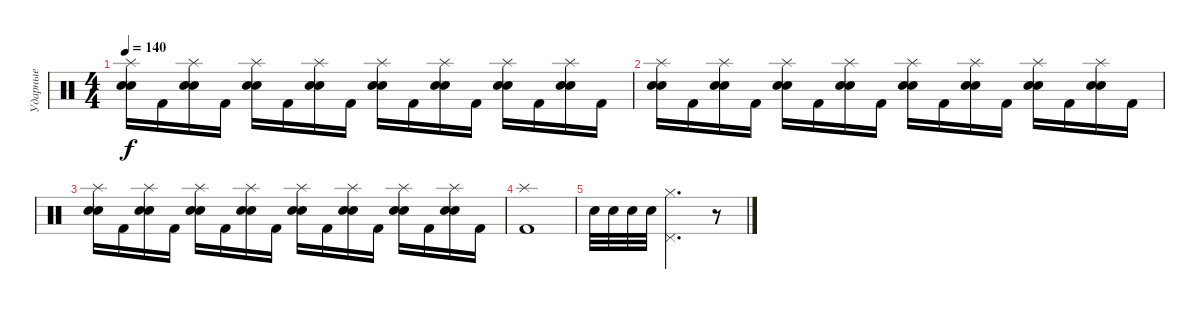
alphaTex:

\track ("Ударные" "Ударные") {instrument percussion}
\staff {score}
\articulation defaults
\ts (4 4)
\tempo 140
\clef neutral
\ks c
("Splash (hit)" "Electric Snare (hit)" "Snare (hit) 2").16{dy f} "Kick (hit) 2".16 ("Splash (hit)" "Electric Snare (hit)" "Snare (hit) 2").16 "Kick (hit) 2".16 ("Splash (hit)" "Electric Snare (hit)" "Snare (hit) 2").16 "Kick (hit) 2".16 ("Splash (hit)" "Electric Snare (hit)" "Snare (hit) 2").16 "Kick (hit) 2".16 ("Splash (hit)" "Electric Snare (hit)" "Snare (hit) 2").16 "Kick (hit) 2".16 ("Splash (hit)" "Electric Snare (hit)" "Snare (hit) 2").16 "Kick (hit) 2".16 ("Splash (hit)" "Electric Snare (hit)" "Snare (hit) 2").16 "Kick (hit) 2".16 ("Splash (hit)" "Electric Snare (hit)" "Snare (hit) 2").16 "Kick (hit) 2".16 |
("Splash (hit)" "Electric Snare (hit)" "Snare (hit) 2").16 "Kick (hit) 2".16 ("Splash (hit)" "Electric Snare (hit)" "Snare (hit) 2").16 "Kick (hit) 2".16 ("Splash (hit)" "Electric Snare (hit)" "Snare (hit) 2").16 "Kick (hit) 2".16 ("Splash (hit)" "Electric Snare (hit)" "Snare (hit) 2").16 "Kick (hit) 2".16 ("Splash (hit)" "Electric Snare (hit)" "Snare (hit) 2").16 "Kick (hit) 2".16 ("Splash (hit)" "Electric Snare (hit)" "Snare (hit) 2").16 "Kick (hit) 2".16 ("Splash (hit)" "Electric Snare (hit)" "Snare (hit) 2").16 "Kick (hit) 2".16 ("Splash (hit)" "Electric Snare (hit)" "Snare (hit) 2").16 "Kick (hit) 2".16 |
("Splash (hit)" "Electric Snare (hit)" "Snare (hit) 2").16 "Kick (hit) 2".16 ("Splash (hit)" "Electric Snare (hit)" "Snare (hit) 2").16 "Kick (hit) 2".16 ("Splash (hit)" "Electric Snare (hit)" "Snare (hit) 2").16 "Kick (hit) 2".16 ("Splash (hit)" "Electric Snare (hit)" "Snare (hit) 2").16 "Kick (hit) 2".16 ("Splash (hit)" "Electric Snare (hit)" "Snare (hit) 2").16 "Kick (hit) 2".16 ("Splash (hit)" "Electric Snare (hit)" "Snare (hit) 2").16 "Kick (hit) 2".16 ("Splash (hit)" "Electric Snare (hit)" "Snare (hit) 2").16 "Kick (hit) 2".16 ("Splash (hit)" "Electric Snare (hit)" "Snare (hit) 2").16 "Kick (hit) 2".16 |
("Splash (hit)" "Kick (hit) 2").1 |
"Electric Snare (hit)".32 "Electric Snare (hit)".32 "Electric Snare (hit)".32 "Electric Snare (hit)".32 ("Pedal Hi-Hat (hit)" "Hi-Hat (closed)").2{d} r.8
